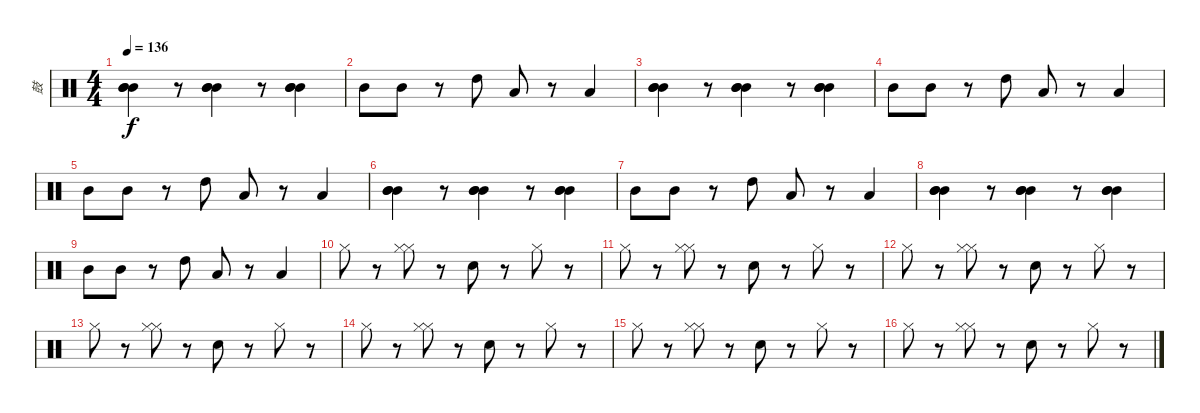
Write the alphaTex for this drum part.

\track ("鼓" "鼓") {instrument percussion}
\staff {score}
\articulation defaults
\ts (4 4)
\tempo 136
\clef neutral
\ks c
("Mid Tom (hit)" "Mid Tom (hit)" "Mid Tom (hit)").4{dy f} r.8 ("Mid Tom (hit)" "Mid Tom (hit)" "Mid Tom (hit)").4 r.8 ("Mid Tom (hit)" "Mid Tom (hit)" "Mid Tom (hit)").4 |
"Mid Tom (hit)".8 "Mid Tom (hit)".8 r.8 "High Tom (hit)".8 "Low Floor Tom (hit)".8 r.8 "Low Tom (hit)".4 |
("Mid Tom (hit)" "Mid Tom (hit)" "Mid Tom (hit)").4 r.8 ("Mid Tom (hit)" "Mid Tom (hit)" "Mid Tom (hit)").4 r.8 ("Mid Tom (hit)" "Mid Tom (hit)" "Mid Tom (hit)").4 |
"Mid Tom (hit)".8 "Mid Tom (hit)".8 r.8 "High Tom (hit)".8 "Low Floor Tom (hit)".8 r.8 "Low Tom (hit)".4 |
"Mid Tom (hit)".8 "Mid Tom (hit)".8 r.8 "High Tom (hit)".8 "Low Floor Tom (hit)".8 r.8 "Low Tom (hit)".4 |
("Mid Tom (hit)" "Mid Tom (hit)" "Mid Tom (hit)").4 r.8 ("Mid Tom (hit)" "Mid Tom (hit)" "Mid Tom (hit)").4 r.8 ("Mid Tom (hit)" "Mid Tom (hit)" "Mid Tom (hit)").4 |
"Mid Tom (hit)".8 "Mid Tom (hit)".8 r.8 "High Tom (hit)".8 "Low Floor Tom (hit)".8 r.8 "Low Tom (hit)".4 |
("Mid Tom (hit)" "Mid Tom (hit)" "Mid Tom (hit)").4 r.8 ("Mid Tom (hit)" "Mid Tom (hit)" "Mid Tom (hit)").4 r.8 ("Mid Tom (hit)" "Mid Tom (hit)" "Mid Tom (hit)").4 |
"Mid Tom (hit)".8 "Mid Tom (hit)".8 r.8 "High Tom (hit)".8 "Low Floor Tom (hit)".8 r.8 "Low Tom (hit)".4 |
"Hi-Hat (closed)".8 r.8 ("Hi-Hat (closed)" "Hi-Hat (closed)").8 r.8 "Snare (hit) 2".8 r.8 "Hi-Hat (closed)".8 r.8 |
"Hi-Hat (closed)".8 r.8 ("Hi-Hat (closed)" "Hi-Hat (closed)").8 r.8 "Snare (hit) 2".8 r.8 "Hi-Hat (closed)".8 r.8 |
"Hi-Hat (closed)".8 r.8 ("Hi-Hat (closed)" "Hi-Hat (closed)").8 r.8 "Snare (hit) 2".8 r.8 "Hi-Hat (closed)".8 r.8 |
"Hi-Hat (closed)".8 r.8 ("Hi-Hat (closed)" "Hi-Hat (closed)").8 r.8 "Snare (hit) 2".8 r.8 "Hi-Hat (closed)".8 r.8 |
"Hi-Hat (closed)".8 r.8 ("Hi-Hat (closed)" "Hi-Hat (closed)").8 r.8 "Snare (hit) 2".8 r.8 "Hi-Hat (closed)".8 r.8 |
"Hi-Hat (closed)".8 r.8 ("Hi-Hat (closed)" "Hi-Hat (closed)").8 r.8 "Snare (hit) 2".8 r.8 "Hi-Hat (closed)".8 r.8 |
"Hi-Hat (closed)".8 r.8 ("Hi-Hat (closed)" "Hi-Hat (closed)").8 r.8 "Snare (hit) 2".8 r.8 "Hi-Hat (closed)".8 r.8
